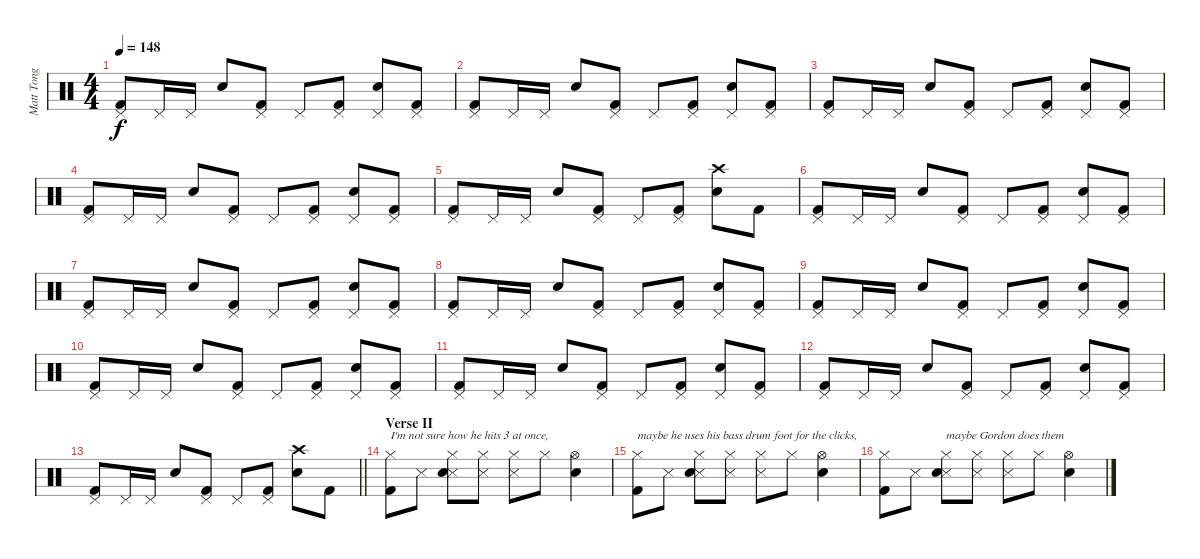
\track ("Matt Tong" "Matt Tong") {instrument percussion}
\staff {score}
\articulation defaults
\ts (4 4)
\tempo 148
\clef neutral
\ks c
("Pedal Hi-Hat (hit)" "Kick (hit) 2").8{dy f} "Pedal Hi-Hat (hit)".16 "Pedal Hi-Hat (hit)".16 "Electric Snare (hit)".8 ("Pedal Hi-Hat (hit)" "Kick (hit) 2").8 "Pedal Hi-Hat (hit)".8 ("Pedal Hi-Hat (hit)" "Kick (hit) 2").8 ("Pedal Hi-Hat (hit)" "Electric Snare (hit)").8 ("Pedal Hi-Hat (hit)" "Kick (hit) 2").8 |
("Pedal Hi-Hat (hit)" "Kick (hit) 2").8 "Pedal Hi-Hat (hit)".16 "Pedal Hi-Hat (hit)".16 "Electric Snare (hit)".8 ("Pedal Hi-Hat (hit)" "Kick (hit) 2").8 "Pedal Hi-Hat (hit)".8 ("Pedal Hi-Hat (hit)" "Kick (hit) 2").8 ("Pedal Hi-Hat (hit)" "Electric Snare (hit)").8 ("Pedal Hi-Hat (hit)" "Kick (hit) 2").8 |
("Pedal Hi-Hat (hit)" "Kick (hit) 2").8 "Pedal Hi-Hat (hit)".16 "Pedal Hi-Hat (hit)".16 "Electric Snare (hit)".8 ("Pedal Hi-Hat (hit)" "Kick (hit) 2").8 "Pedal Hi-Hat (hit)".8 ("Pedal Hi-Hat (hit)" "Kick (hit) 2").8 ("Pedal Hi-Hat (hit)" "Electric Snare (hit)").8 ("Pedal Hi-Hat (hit)" "Kick (hit) 2").8 |
("Pedal Hi-Hat (hit)" "Kick (hit) 2").8 "Pedal Hi-Hat (hit)".16 "Pedal Hi-Hat (hit)".16 "Electric Snare (hit)".8 ("Pedal Hi-Hat (hit)" "Kick (hit) 2").8 "Pedal Hi-Hat (hit)".8 ("Pedal Hi-Hat (hit)" "Kick (hit) 2").8 ("Pedal Hi-Hat (hit)" "Electric Snare (hit)").8 ("Pedal Hi-Hat (hit)" "Kick (hit) 2").8 |
("Pedal Hi-Hat (hit)" "Kick (hit) 2").8 "Pedal Hi-Hat (hit)".16 "Pedal Hi-Hat (hit)".16 "Electric Snare (hit)".8 ("Pedal Hi-Hat (hit)" "Kick (hit) 2").8 "Pedal Hi-Hat (hit)".8 ("Pedal Hi-Hat (hit)" "Kick (hit) 2").8 ("Crash high (hit)" "Electric Snare (hit)").8 "Kick (hit) 2".8 |
("Pedal Hi-Hat (hit)" "Kick (hit) 2").8 "Pedal Hi-Hat (hit)".16 "Pedal Hi-Hat (hit)".16 "Electric Snare (hit)".8 ("Pedal Hi-Hat (hit)" "Kick (hit) 2").8 "Pedal Hi-Hat (hit)".8 ("Pedal Hi-Hat (hit)" "Kick (hit) 2").8 ("Pedal Hi-Hat (hit)" "Electric Snare (hit)").8 ("Pedal Hi-Hat (hit)" "Kick (hit) 2").8 |
("Pedal Hi-Hat (hit)" "Kick (hit) 2").8 "Pedal Hi-Hat (hit)".16 "Pedal Hi-Hat (hit)".16 "Electric Snare (hit)".8 ("Pedal Hi-Hat (hit)" "Kick (hit) 2").8 "Pedal Hi-Hat (hit)".8 ("Pedal Hi-Hat (hit)" "Kick (hit) 2").8 ("Pedal Hi-Hat (hit)" "Electric Snare (hit)").8 ("Pedal Hi-Hat (hit)" "Kick (hit) 2").8 |
("Pedal Hi-Hat (hit)" "Kick (hit) 2").8 "Pedal Hi-Hat (hit)".16 "Pedal Hi-Hat (hit)".16 "Electric Snare (hit)".8 ("Pedal Hi-Hat (hit)" "Kick (hit) 2").8 "Pedal Hi-Hat (hit)".8 ("Pedal Hi-Hat (hit)" "Kick (hit) 2").8 ("Pedal Hi-Hat (hit)" "Electric Snare (hit)").8 ("Pedal Hi-Hat (hit)" "Kick (hit) 2").8 |
("Pedal Hi-Hat (hit)" "Kick (hit) 2").8 "Pedal Hi-Hat (hit)".16 "Pedal Hi-Hat (hit)".16 "Electric Snare (hit)".8 ("Pedal Hi-Hat (hit)" "Kick (hit) 2").8 "Pedal Hi-Hat (hit)".8 ("Pedal Hi-Hat (hit)" "Kick (hit) 2").8 ("Pedal Hi-Hat (hit)" "Electric Snare (hit)").8 ("Pedal Hi-Hat (hit)" "Kick (hit) 2").8 |
("Pedal Hi-Hat (hit)" "Kick (hit) 2").8 "Pedal Hi-Hat (hit)".16 "Pedal Hi-Hat (hit)".16 "Electric Snare (hit)".8 ("Pedal Hi-Hat (hit)" "Kick (hit) 2").8 "Pedal Hi-Hat (hit)".8 ("Pedal Hi-Hat (hit)" "Kick (hit) 2").8 ("Pedal Hi-Hat (hit)" "Electric Snare (hit)").8 ("Pedal Hi-Hat (hit)" "Kick (hit) 2").8 |
("Pedal Hi-Hat (hit)" "Kick (hit) 2").8 "Pedal Hi-Hat (hit)".16 "Pedal Hi-Hat (hit)".16 "Electric Snare (hit)".8 ("Pedal Hi-Hat (hit)" "Kick (hit) 2").8 "Pedal Hi-Hat (hit)".8 ("Pedal Hi-Hat (hit)" "Kick (hit) 2").8 ("Pedal Hi-Hat (hit)" "Electric Snare (hit)").8 ("Pedal Hi-Hat (hit)" "Kick (hit) 2").8 |
("Pedal Hi-Hat (hit)" "Kick (hit) 2").8 "Pedal Hi-Hat (hit)".16 "Pedal Hi-Hat (hit)".16 "Electric Snare (hit)".8 ("Pedal Hi-Hat (hit)" "Kick (hit) 2").8 "Pedal Hi-Hat (hit)".8 ("Pedal Hi-Hat (hit)" "Kick (hit) 2").8 ("Pedal Hi-Hat (hit)" "Electric Snare (hit)").8 ("Pedal Hi-Hat (hit)" "Kick (hit) 2").8 |
\barLineRight lightlight
("Pedal Hi-Hat (hit)" "Kick (hit) 2").8 "Pedal Hi-Hat (hit)".16 "Pedal Hi-Hat (hit)".16 "Electric Snare (hit)".8 ("Pedal Hi-Hat (hit)" "Kick (hit) 2").8 "Pedal Hi-Hat (hit)".8 ("Pedal Hi-Hat (hit)" "Kick (hit) 2").8 ("Crash high (hit)" "Electric Snare (hit)").8 "Kick (hit) 2".8 |
\section ("" "Verse II")
("Hi-Hat (closed)" "Kick (hit) 2").8{txt "I'm not sure how he hits 3 at once,"} "Snare (side stick) 3".8 ("Hi-Hat (closed)" "Snare (side stick) 3" "Electric Snare (hit)").8 ("Hi-Hat (closed)" "Snare (side stick) 3").8 ("Hi-Hat (closed)" "Snare (side stick) 3").8 "Hi-Hat (closed)".8 ("Hi-Hat (open)" "Electric Snare (hit)").4 |
("Hi-Hat (closed)" "Kick (hit) 2").8{txt "maybe he uses his bass drum foot for the clicks,"} "Snare (side stick) 3".8 ("Hi-Hat (closed)" "Snare (side stick) 3" "Electric Snare (hit)").8 ("Hi-Hat (closed)" "Snare (side stick) 3").8 ("Hi-Hat (closed)" "Snare (side stick) 3").8 "Hi-Hat (closed)".8 ("Hi-Hat (open)" "Electric Snare (hit)").4 |
("Hi-Hat (closed)" "Kick (hit) 2").8 "Snare (side stick) 3".8 ("Hi-Hat (closed)" "Snare (side stick) 3" "Electric Snare (hit)").8{txt "maybe Gordon does them"} ("Hi-Hat (closed)" "Snare (side stick) 3").8 ("Hi-Hat (closed)" "Snare (side stick) 3").8 "Hi-Hat (closed)".8 ("Hi-Hat (open)" "Electric Snare (hit)").4
